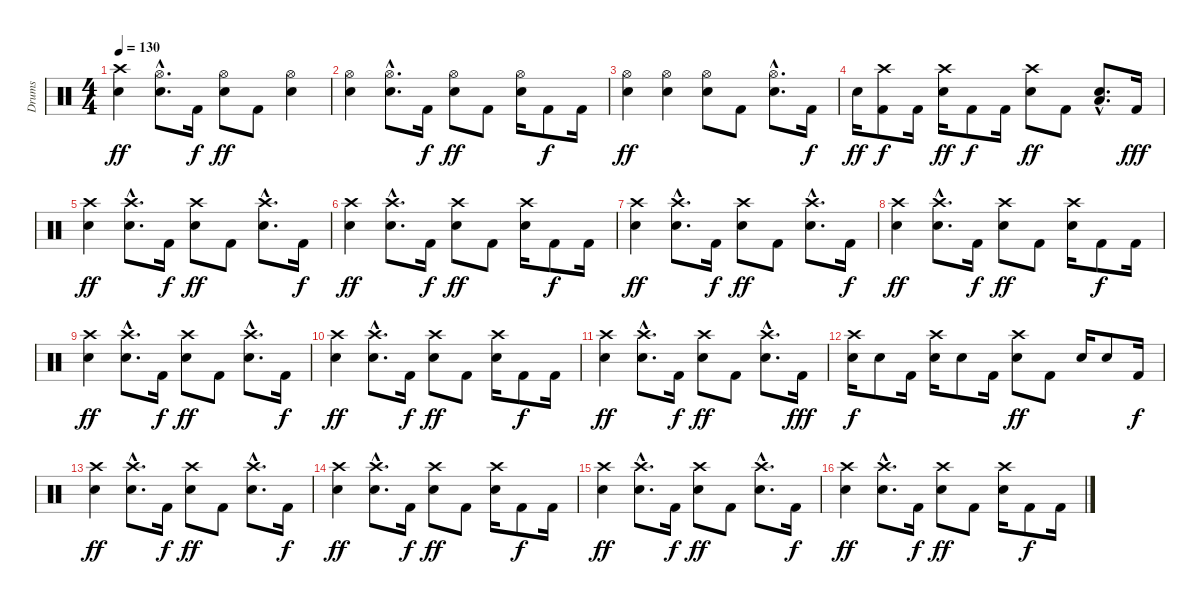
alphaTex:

\track ("Drums" "Drums") {instrument percussion}
\staff {score}
\articulation defaults
\ts (4 4)
\tempo 130
\clef neutral
\ks c
("Crash high (hit)" "Electric Snare (hit)").4{dy ff} ("Hi-Hat (open)"{hac} "Electric Snare (hit)"{hac}).8{d} "Kick (hit) 2".16{dy f} ("Hi-Hat (open)" "Electric Snare (hit)").8{dy ff} "Kick (hit) 2".8 ("Hi-Hat (open)" "Electric Snare (hit)").4 |
("Hi-Hat (open)" "Electric Snare (hit)").4 ("Hi-Hat (open)"{hac} "Electric Snare (hit)"{hac}).8{d} "Kick (hit) 2".16{dy f} ("Hi-Hat (open)" "Electric Snare (hit)").8{dy ff} "Kick (hit) 2".8 ("Hi-Hat (open)" "Electric Snare (hit)").16 "Kick (hit) 2".8{dy f} "Kick (hit) 2".16 |
("Hi-Hat (open)" "Electric Snare (hit)").4{dy ff} ("Hi-Hat (open)" "Electric Snare (hit)").4 ("Hi-Hat (open)" "Electric Snare (hit)").8 "Kick (hit) 2".8 ("Hi-Hat (open)"{hac} "Electric Snare (hit)"{hac}).8{d} "Kick (hit) 2".16{dy f} |
"Electric Snare (hit)".16{dy ff} ("Crash high (hit)" "Kick (hit) 2").8{dy f} "Kick (hit) 2".16 ("Crash high (hit)" "Electric Snare (hit)").16{dy ff} "Kick (hit) 2".8{dy f} "Kick (hit) 2".16 ("Crash high (hit)" "Electric Snare (hit)").8{dy ff} "Kick (hit) 2".8 ("Electric Snare (hit)"{hac} "Low Tom (hit)"{hac}).8{d} "Kick (hit) 2".16{dy fff} |
("Crash high (hit)" "Electric Snare (hit)").4{dy ff} ("Crash high (hit)"{hac} "Electric Snare (hit)"{hac}).8{d} "Kick (hit) 2".16{dy f} ("Crash high (hit)" "Electric Snare (hit)").8{dy ff} "Kick (hit) 2".8 ("Crash high (hit)"{hac} "Electric Snare (hit)"{hac}).8{d} "Kick (hit) 2".16{dy f} |
("Crash high (hit)" "Electric Snare (hit)").4{dy ff} ("Crash high (hit)"{hac} "Electric Snare (hit)"{hac}).8{d} "Kick (hit) 2".16{dy f} ("Crash high (hit)" "Electric Snare (hit)").8{dy ff} "Kick (hit) 2".8 ("Crash high (hit)" "Electric Snare (hit)").16 "Kick (hit) 2".8{dy f} "Kick (hit) 2".16 |
("Crash high (hit)" "Electric Snare (hit)").4{dy ff} ("Crash high (hit)"{hac} "Electric Snare (hit)"{hac}).8{d} "Kick (hit) 2".16{dy f} ("Crash high (hit)" "Electric Snare (hit)").8{dy ff} "Kick (hit) 2".8 ("Crash high (hit)"{hac} "Electric Snare (hit)"{hac}).8{d} "Kick (hit) 2".16{dy f} |
("Crash high (hit)" "Electric Snare (hit)").4{dy ff} ("Crash high (hit)"{hac} "Electric Snare (hit)"{hac}).8{d} "Kick (hit) 2".16{dy f} ("Crash high (hit)" "Electric Snare (hit)").8{dy ff} "Kick (hit) 2".8 ("Crash high (hit)" "Electric Snare (hit)").16 "Kick (hit) 2".8{dy f} "Kick (hit) 2".16 |
("Crash high (hit)" "Electric Snare (hit)").4{dy ff} ("Crash high (hit)"{hac} "Electric Snare (hit)"{hac}).8{d} "Kick (hit) 2".16{dy f} ("Crash high (hit)" "Electric Snare (hit)").8{dy ff} "Kick (hit) 2".8 ("Crash high (hit)"{hac} "Electric Snare (hit)"{hac}).8{d} "Kick (hit) 2".16{dy f} |
("Crash high (hit)" "Electric Snare (hit)").4{dy ff} ("Crash high (hit)"{hac} "Electric Snare (hit)"{hac}).8{d} "Kick (hit) 2".16{dy f} ("Crash high (hit)" "Electric Snare (hit)").8{dy ff} "Kick (hit) 2".8 ("Crash high (hit)" "Electric Snare (hit)").16 "Kick (hit) 2".8{dy f} "Kick (hit) 2".16 |
("Crash high (hit)" "Electric Snare (hit)").4{dy ff} ("Crash high (hit)"{hac} "Electric Snare (hit)"{hac}).8{d} "Kick (hit) 2".16{dy f} ("Crash high (hit)" "Electric Snare (hit)").8{dy ff} "Kick (hit) 2".8 ("Crash high (hit)"{hac} "Electric Snare (hit)"{hac}).8{d} "Kick (hit) 2".16{dy fff} |
("Crash high (hit)" "Electric Snare (hit)").16{dy f} "Electric Snare (hit)".8 "Kick (hit) 2".16 ("Crash high (hit)" "Electric Snare (hit)").16 "Electric Snare (hit)".8 "Kick (hit) 2".16 ("Crash high (hit)" "Electric Snare (hit)").8{dy ff} "Kick (hit) 2".8 "Electric Snare (hit)".16 "Electric Snare (hit)".8 "Kick (hit) 2".16{dy f} |
("Crash high (hit)" "Electric Snare (hit)").4{dy ff} ("Crash high (hit)"{hac} "Electric Snare (hit)"{hac}).8{d} "Kick (hit) 2".16{dy f} ("Crash high (hit)" "Electric Snare (hit)").8{dy ff} "Kick (hit) 2".8 ("Crash high (hit)"{hac} "Electric Snare (hit)"{hac}).8{d} "Kick (hit) 2".16{dy f} |
("Crash high (hit)" "Electric Snare (hit)").4{dy ff} ("Crash high (hit)"{hac} "Electric Snare (hit)"{hac}).8{d} "Kick (hit) 2".16{dy f} ("Crash high (hit)" "Electric Snare (hit)").8{dy ff} "Kick (hit) 2".8 ("Crash high (hit)" "Electric Snare (hit)").16 "Kick (hit) 2".8{dy f} "Kick (hit) 2".16 |
("Crash high (hit)" "Electric Snare (hit)").4{dy ff} ("Crash high (hit)"{hac} "Electric Snare (hit)"{hac}).8{d} "Kick (hit) 2".16{dy f} ("Crash high (hit)" "Electric Snare (hit)").8{dy ff} "Kick (hit) 2".8 ("Crash high (hit)"{hac} "Electric Snare (hit)"{hac}).8{d} "Kick (hit) 2".16{dy f} |
("Crash high (hit)" "Electric Snare (hit)").4{dy ff} ("Crash high (hit)"{hac} "Electric Snare (hit)"{hac}).8{d} "Kick (hit) 2".16{dy f} ("Crash high (hit)" "Electric Snare (hit)").8{dy ff} "Kick (hit) 2".8 ("Crash high (hit)" "Electric Snare (hit)").16 "Kick (hit) 2".8{dy f} "Kick (hit) 2".16
